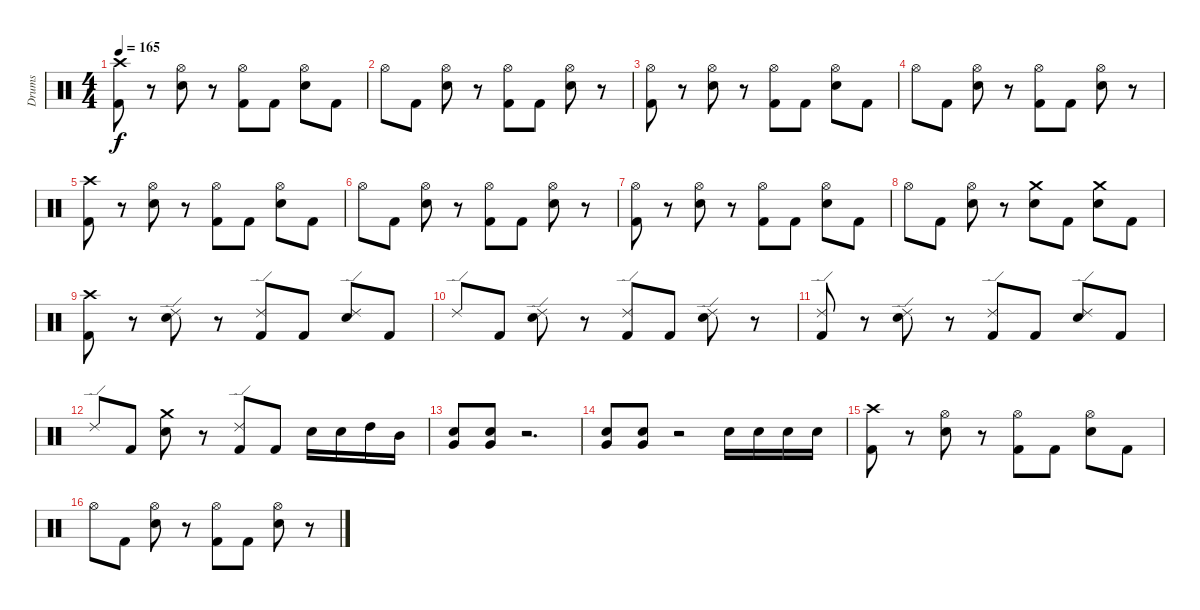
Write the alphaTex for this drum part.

\track ("Drums" "Drums") {instrument percussion}
\staff {score}
\articulation defaults
\ts (4 4)
\tempo 165
\clef neutral
\ks c
("Crash high (hit)" "Kick (hit) 2").8{dy f} r.8 ("Hi-Hat (open)" "Electric Snare (hit)").8 r.8 ("Hi-Hat (open)" "Kick (hit) 2").8 "Kick (hit) 2".8 ("Hi-Hat (open)" "Electric Snare (hit)").8 "Kick (hit) 2".8 |
"Hi-Hat (open)".8 "Kick (hit) 2".8 ("Hi-Hat (open)" "Electric Snare (hit)").8 r.8 ("Hi-Hat (open)" "Kick (hit) 2").8 "Kick (hit) 2".8 ("Hi-Hat (open)" "Electric Snare (hit)").8 r.8 |
("Hi-Hat (open)" "Kick (hit) 2").8 r.8 ("Hi-Hat (open)" "Electric Snare (hit)").8 r.8 ("Hi-Hat (open)" "Kick (hit) 2").8 "Kick (hit) 2".8 ("Hi-Hat (open)" "Electric Snare (hit)").8 "Kick (hit) 2".8 |
"Hi-Hat (open)".8 "Kick (hit) 2".8 ("Hi-Hat (open)" "Electric Snare (hit)").8 r.8 ("Hi-Hat (open)" "Kick (hit) 2").8 "Kick (hit) 2".8 ("Hi-Hat (open)" "Electric Snare (hit)").8 r.8 |
("Crash high (hit)" "Kick (hit) 2").8 r.8 ("Hi-Hat (open)" "Electric Snare (hit)").8 r.8 ("Hi-Hat (open)" "Kick (hit) 2").8 "Kick (hit) 2".8 ("Hi-Hat (open)" "Electric Snare (hit)").8 "Kick (hit) 2".8 |
"Hi-Hat (open)".8 "Kick (hit) 2".8 ("Hi-Hat (open)" "Electric Snare (hit)").8 r.8 ("Hi-Hat (open)" "Kick (hit) 2").8 "Kick (hit) 2".8 ("Hi-Hat (open)" "Electric Snare (hit)").8 r.8 |
("Hi-Hat (open)" "Kick (hit) 2").8 r.8 ("Hi-Hat (open)" "Electric Snare (hit)").8 r.8 ("Hi-Hat (open)" "Kick (hit) 2").8 "Kick (hit) 2".8 ("Hi-Hat (open)" "Electric Snare (hit)").8 "Kick (hit) 2".8 |
"Hi-Hat (open)".8 "Kick (hit) 2".8 ("Hi-Hat (open)" "Electric Snare (hit)").8 r.8 ("Crash medium (hit)" "Electric Snare (hit)").8 "Kick (hit) 2".8 ("Crash medium (hit)" "Electric Snare (hit)").8 "Kick (hit) 2".8 |
("Crash high (hit)" "Kick (hit) 2").8 r.8 ("Ride (edge) 2" "Electric Snare (hit)").8 r.8 ("Ride (edge) 2" "Kick (hit) 2").8 "Kick (hit) 2".8 ("Ride (edge) 2" "Electric Snare (hit)").8 "Kick (hit) 2".8 |
"Ride (edge) 2".8 "Kick (hit) 2".8 ("Ride (edge) 2" "Electric Snare (hit)").8 r.8 ("Ride (edge) 2" "Kick (hit) 2").8 "Kick (hit) 2".8 ("Ride (edge) 2" "Electric Snare (hit)").8 r.8 |
("Ride (edge) 2" "Kick (hit) 2").8 r.8 ("Ride (edge) 2" "Electric Snare (hit)").8 r.8 ("Ride (edge) 2" "Kick (hit) 2").8 "Kick (hit) 2".8 ("Ride (edge) 2" "Electric Snare (hit)").8 "Kick (hit) 2".8 |
"Ride (edge) 2".8 "Kick (hit) 2".8 ("Crash medium (hit)" "Electric Snare (hit)").8 r.8 ("Ride (edge) 2" "Kick (hit) 2").8 "Kick (hit) 2".8 "Electric Snare (hit)".16 "Electric Snare (hit)".16 "High Tom (hit)".16 "Mid Tom (hit)".16 |
("Electric Snare (hit)" "Very Low Tom (hit)").8 ("Electric Snare (hit)" "Very Low Tom (hit)").8 r.2{d} |
("Electric Snare (hit)" "Very Low Tom (hit)").8 ("Electric Snare (hit)" "Very Low Tom (hit)").8 r.2 "Electric Snare (hit)".16 "Electric Snare (hit)".16 "Electric Snare (hit)".16 "Electric Snare (hit)".16 |
("Crash high (hit)" "Kick (hit) 2").8 r.8 ("Hi-Hat (open)" "Electric Snare (hit)").8 r.8 ("Hi-Hat (open)" "Kick (hit) 2").8 "Kick (hit) 2".8 ("Hi-Hat (open)" "Electric Snare (hit)").8 "Kick (hit) 2".8 |
"Hi-Hat (open)".8 "Kick (hit) 2".8 ("Hi-Hat (open)" "Electric Snare (hit)").8 r.8 ("Hi-Hat (open)" "Kick (hit) 2").8 "Kick (hit) 2".8 ("Hi-Hat (open)" "Electric Snare (hit)").8 r.8
